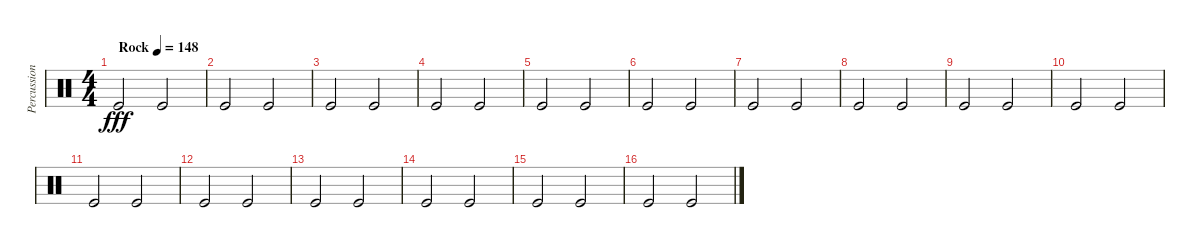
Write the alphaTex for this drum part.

\track ("Percussion" "Percussion") {instrument percussion}
\staff {score}
\articulation defaults
\ts (4 4)
\tempo (148 "Rock")
\clef neutral
\ks c "Kick (hit)".2{dy fff} "Kick (hit)".2
|
"Kick (hit)".2 "Kick (hit)".2 |
"Kick (hit)".2 "Kick (hit)".2 |
"Kick (hit)".2 "Kick (hit)".2 |
"Kick (hit)".2 "Kick (hit)".2 |
"Kick (hit)".2 "Kick (hit)".2 |
"Kick (hit)".2 "Kick (hit)".2 |
"Kick (hit)".2 "Kick (hit)".2 |
"Kick (hit)".2 "Kick (hit)".2 |
"Kick (hit)".2 "Kick (hit)".2 |
"Kick (hit)".2 "Kick (hit)".2 |
"Kick (hit)".2 "Kick (hit)".2 |
"Kick (hit)".2 "Kick (hit)".2 |
"Kick (hit)".2 "Kick (hit)".2 |
"Kick (hit)".2 "Kick (hit)".2 |
"Kick (hit)".2 "Kick (hit)".2
